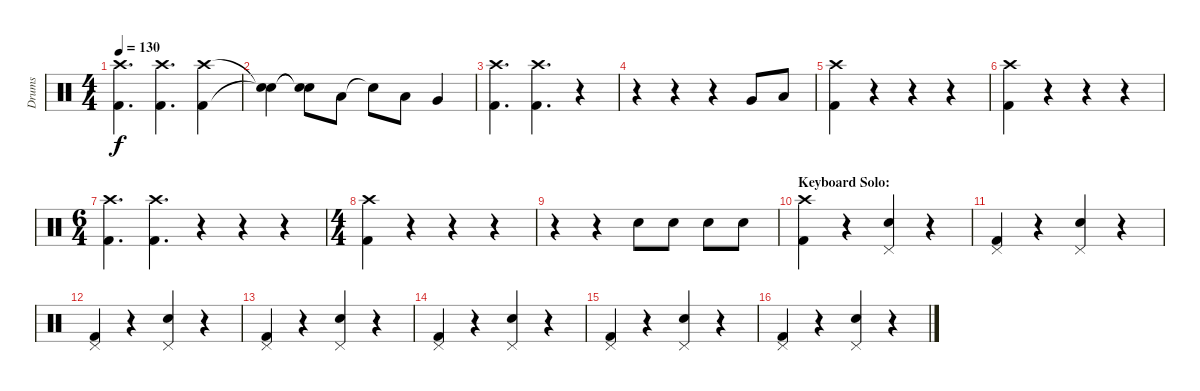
\track ("Drums" "Drums") {instrument percussion}
\staff {score}
\articulation defaults
\ts (4 4)
\tempo 130
\clef neutral
\ks c
("Crash high (hit)" "Kick (hit) 2").4{d dy f} ("Crash high (hit)" "Kick (hit) 2").4{d} ("Crash high (hit)" "Kick (hit) 2").4 |
("Snare (hit)"{t} "Snare (hit)"{t}).4 ("Snare (hit)"{t} "Snare (hit)"{t}).8 "Low Tom (hit)".8 "Snare (hit)"{t}.8 "Low Tom (hit)".8 "Very Low Tom (hit)".4 |
("Crash high (hit)" "Kick (hit) 2").4{d} ("Crash high (hit)" "Kick (hit) 2").4{d} r.4 |
r.4 r.4 r.4 "Very Low Tom (hit)".8 "Low Tom (hit)".8 |
("Crash high (hit)" "Kick (hit) 2").4 r.4 r.4 r.4 |
("Crash high (hit)" "Kick (hit) 2").4 r.4 r.4 r.4 |
\ts (6 4)
("Crash high (hit)" "Kick (hit) 2").4{d} ("Crash high (hit)" "Kick (hit) 2").4{d} r.4 r.4 r.4 |
\ts (4 4)
("Crash high (hit)" "Kick (hit) 2").4 r.4 r.4 r.4 |
r.4 r.4 "Electric Snare (hit)".8 "Electric Snare (hit)".8 "Electric Snare (hit)".8 "Electric Snare (hit)".8 |
\section ("" "Keyboard Solo:")
("Crash high (hit)" "Kick (hit) 2").4 r.4 ("Pedal Hi-Hat (hit)" "Electric Snare (hit)").4 r.4 |
("Pedal Hi-Hat (hit)" "Kick (hit) 2").4 r.4 ("Pedal Hi-Hat (hit)" "Electric Snare (hit)").4 r.4 |
("Pedal Hi-Hat (hit)" "Kick (hit) 2").4 r.4 ("Pedal Hi-Hat (hit)" "Electric Snare (hit)").4 r.4 |
("Pedal Hi-Hat (hit)" "Kick (hit) 2").4 r.4 ("Pedal Hi-Hat (hit)" "Electric Snare (hit)").4 r.4 |
("Pedal Hi-Hat (hit)" "Kick (hit) 2").4 r.4 ("Pedal Hi-Hat (hit)" "Electric Snare (hit)").4 r.4 |
("Pedal Hi-Hat (hit)" "Kick (hit) 2").4 r.4 ("Pedal Hi-Hat (hit)" "Electric Snare (hit)").4 r.4 |
("Pedal Hi-Hat (hit)" "Kick (hit) 2").4 r.4 ("Pedal Hi-Hat (hit)" "Electric Snare (hit)").4 r.4
